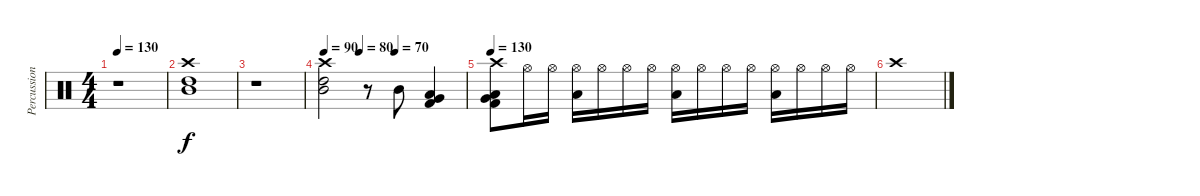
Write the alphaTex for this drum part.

\track ("Percussions" "Percussion") {instrument percussion}
\staff {score}
\articulation defaults
\ts (4 4)
\tempo 130
\clef neutral
\ks c
r.1{dy f} |
("Mid Tom (hit)" "Crash high (hit)" "High Tom (hit)").1 |
r.1 |
\tempo 90
\tempo (80 0.25)
\tempo (70 0.5)
("Mid Tom (hit)" "Crash high (hit)" "High Tom (hit)").2 r.8 "Mid Tom (hit)".8 ("Very Low Tom (hit)" "Kick (hit) 2" "Low Tom (hit)").4 |
\tempo 130
("Low Tom (hit)" "Kick (hit) 2" "Very Low Tom (hit)" "Crash high (hit)").8 "Hi-Hat (open)".16 "Hi-Hat (open)".16 ("Hi-Hat (open)" "Low Tom (hit)").16 "Hi-Hat (open)".16 "Hi-Hat (open)".16 "Hi-Hat (open)".16 ("Hi-Hat (open)" "Low Tom (hit)").16 "Hi-Hat (open)".16 "Hi-Hat (open)".16 "Hi-Hat (open)".16 ("Hi-Hat (open)" "Low Tom (hit)").16 "Hi-Hat (open)".16 "Hi-Hat (open)".16 "Hi-Hat (open)".16 |
"Crash high (hit)".1
